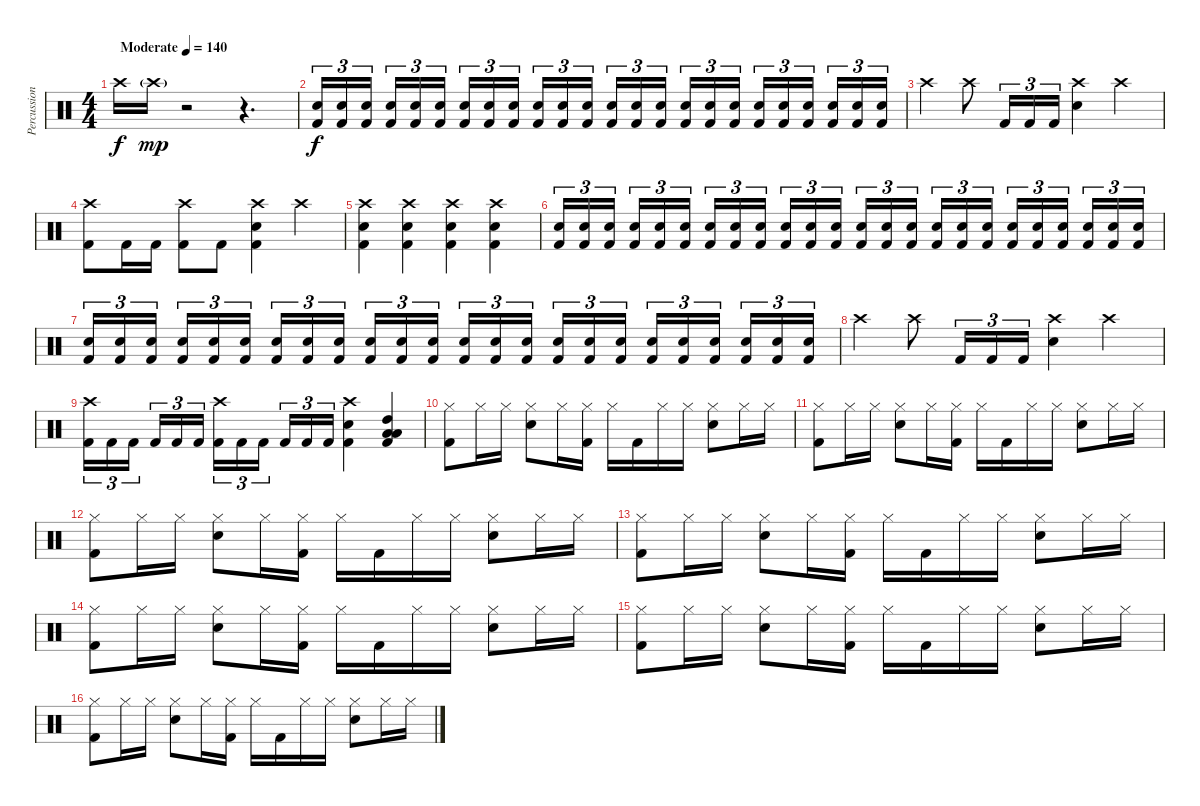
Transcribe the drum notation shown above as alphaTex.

\track ("Percussion" "Percussion") {instrument percussion}
\staff
\articulation defaults
\ts (4 4)
\tempo (140 "Moderate")
\clef neutral
\ks c "Crash high (hit)".16{dy f} "Crash high (hit)"{g}.16{dy mp}
r.2 r.4{d} |
("Electric Snare (hit)" "Kick (hit) 2").16{tu (3 2) dy f} ("Electric Snare (hit)" "Kick (hit) 2").16{tu (3 2)} ("Electric Snare (hit)" "Kick (hit) 2").16{tu (3 2) beam splitsecondary} ("Electric Snare (hit)" "Kick (hit) 2").16{tu (3 2)} ("Electric Snare (hit)" "Kick (hit) 2").16{tu (3 2)} ("Electric Snare (hit)" "Kick (hit) 2").16{tu (3 2)} ("Electric Snare (hit)" "Kick (hit) 2").16{tu (3 2)} ("Electric Snare (hit)" "Kick (hit) 2").16{tu (3 2)} ("Electric Snare (hit)" "Kick (hit) 2").16{tu (3 2) beam splitsecondary} ("Electric Snare (hit)" "Kick (hit) 2").16{tu (3 2)} ("Electric Snare (hit)" "Kick (hit) 2").16{tu (3 2)} ("Electric Snare (hit)" "Kick (hit) 2").16{tu (3 2)} ("Electric Snare (hit)" "Kick (hit) 2").16{tu (3 2)} ("Electric Snare (hit)" "Kick (hit) 2").16{tu (3 2)} ("Electric Snare (hit)" "Kick (hit) 2").16{tu (3 2) beam splitsecondary} ("Electric Snare (hit)" "Kick (hit) 2").16{tu (3 2)} ("Electric Snare (hit)" "Kick (hit) 2").16{tu (3 2)} ("Electric Snare (hit)" "Kick (hit) 2").16{tu (3 2)} ("Electric Snare (hit)" "Kick (hit) 2").16{tu (3 2)} ("Electric Snare (hit)" "Kick (hit) 2").16{tu (3 2)} ("Electric Snare (hit)" "Kick (hit) 2").16{tu (3 2) beam splitsecondary} ("Electric Snare (hit)" "Kick (hit) 2").16{tu (3 2)} ("Electric Snare (hit)" "Kick (hit) 2").16{tu (3 2)} ("Electric Snare (hit)" "Kick (hit) 2").16{tu (3 2)} |
"Crash high (hit)".4 "Crash high (hit)".8 "Kick (hit) 2".16{tu (3 2)} "Kick (hit) 2".16{tu (3 2)} "Kick (hit) 2".16{tu (3 2)} ("Crash high (hit)" "Electric Snare (hit)").4 "Crash high (hit)".4 |
("Crash high (hit)" "Kick (hit) 2").8 "Kick (hit) 2".16 "Kick (hit) 2".16 ("Crash high (hit)" "Kick (hit) 2").8 "Kick (hit) 2".8 ("Crash high (hit)" "Electric Snare (hit)" "Kick (hit) 2").4 "Crash high (hit)".4 |
("Crash high (hit)" "Electric Snare (hit)" "Kick (hit) 2").4 ("Crash high (hit)" "Electric Snare (hit)" "Kick (hit) 2").4 ("Crash high (hit)" "Electric Snare (hit)" "Kick (hit) 2").4 ("Crash high (hit)" "Electric Snare (hit)" "Kick (hit) 2").4 |
("Electric Snare (hit)" "Kick (hit) 2").16{tu (3 2)} ("Electric Snare (hit)" "Kick (hit) 2").16{tu (3 2)} ("Electric Snare (hit)" "Kick (hit) 2").16{tu (3 2) beam splitsecondary} ("Electric Snare (hit)" "Kick (hit) 2").16{tu (3 2)} ("Electric Snare (hit)" "Kick (hit) 2").16{tu (3 2)} ("Electric Snare (hit)" "Kick (hit) 2").16{tu (3 2)} ("Electric Snare (hit)" "Kick (hit) 2").16{tu (3 2)} ("Electric Snare (hit)" "Kick (hit) 2").16{tu (3 2)} ("Electric Snare (hit)" "Kick (hit) 2").16{tu (3 2) beam splitsecondary} ("Electric Snare (hit)" "Kick (hit) 2").16{tu (3 2)} ("Electric Snare (hit)" "Kick (hit) 2").16{tu (3 2)} ("Electric Snare (hit)" "Kick (hit) 2").16{tu (3 2)} ("Electric Snare (hit)" "Kick (hit) 2").16{tu (3 2)} ("Electric Snare (hit)" "Kick (hit) 2").16{tu (3 2)} ("Electric Snare (hit)" "Kick (hit) 2").16{tu (3 2) beam splitsecondary} ("Electric Snare (hit)" "Kick (hit) 2").16{tu (3 2)} ("Electric Snare (hit)" "Kick (hit) 2").16{tu (3 2)} ("Electric Snare (hit)" "Kick (hit) 2").16{tu (3 2)} ("Electric Snare (hit)" "Kick (hit) 2").16{tu (3 2)} ("Electric Snare (hit)" "Kick (hit) 2").16{tu (3 2)} ("Electric Snare (hit)" "Kick (hit) 2").16{tu (3 2) beam splitsecondary} ("Electric Snare (hit)" "Kick (hit) 2").16{tu (3 2)} ("Electric Snare (hit)" "Kick (hit) 2").16{tu (3 2)} ("Electric Snare (hit)" "Kick (hit) 2").16{tu (3 2)} |
("Electric Snare (hit)" "Kick (hit) 2").16{tu (3 2)} ("Electric Snare (hit)" "Kick (hit) 2").16{tu (3 2)} ("Electric Snare (hit)" "Kick (hit) 2").16{tu (3 2) beam splitsecondary} ("Electric Snare (hit)" "Kick (hit) 2").16{tu (3 2)} ("Electric Snare (hit)" "Kick (hit) 2").16{tu (3 2)} ("Electric Snare (hit)" "Kick (hit) 2").16{tu (3 2)} ("Electric Snare (hit)" "Kick (hit) 2").16{tu (3 2)} ("Electric Snare (hit)" "Kick (hit) 2").16{tu (3 2)} ("Electric Snare (hit)" "Kick (hit) 2").16{tu (3 2) beam splitsecondary} ("Electric Snare (hit)" "Kick (hit) 2").16{tu (3 2)} ("Electric Snare (hit)" "Kick (hit) 2").16{tu (3 2)} ("Electric Snare (hit)" "Kick (hit) 2").16{tu (3 2)} ("Electric Snare (hit)" "Kick (hit) 2").16{tu (3 2)} ("Electric Snare (hit)" "Kick (hit) 2").16{tu (3 2)} ("Electric Snare (hit)" "Kick (hit) 2").16{tu (3 2) beam splitsecondary} ("Electric Snare (hit)" "Kick (hit) 2").16{tu (3 2)} ("Electric Snare (hit)" "Kick (hit) 2").16{tu (3 2)} ("Electric Snare (hit)" "Kick (hit) 2").16{tu (3 2)} ("Electric Snare (hit)" "Kick (hit) 2").16{tu (3 2)} ("Electric Snare (hit)" "Kick (hit) 2").16{tu (3 2)} ("Electric Snare (hit)" "Kick (hit) 2").16{tu (3 2) beam splitsecondary} ("Electric Snare (hit)" "Kick (hit) 2").16{tu (3 2)} ("Electric Snare (hit)" "Kick (hit) 2").16{tu (3 2)} ("Electric Snare (hit)" "Kick (hit) 2").16{tu (3 2)} |
"Crash high (hit)".4 "Crash high (hit)".8 "Kick (hit) 2".16{tu (3 2)} "Kick (hit) 2".16{tu (3 2)} "Kick (hit) 2".16{tu (3 2)} ("Crash high (hit)" "Electric Snare (hit)").4 "Crash high (hit)".4 |
("Crash high (hit)" "Kick (hit) 2").16{tu (3 2)} "Kick (hit) 2".16{tu (3 2)} "Kick (hit) 2".16{tu (3 2) beam splitsecondary} "Kick (hit) 2".16{tu (3 2)} "Kick (hit) 2".16{tu (3 2)} "Kick (hit) 2".16{tu (3 2)} ("Crash high (hit)" "Kick (hit) 2").16{tu (3 2)} "Kick (hit) 2".16{tu (3 2)} "Kick (hit) 2".16{tu (3 2) beam splitsecondary} "Kick (hit) 2".16{tu (3 2)} "Kick (hit) 2".16{tu (3 2)} "Kick (hit) 2".16{tu (3 2)} ("Crash high (hit)" "Electric Snare (hit)" "Kick (hit) 2").4 ("Low Floor Tom (hit)" "High Tom (hit)" "Low Tom (hit)" "Kick (hit) 2").4 |
("Hi-Hat (closed)" "Kick (hit) 2").8 "Hi-Hat (closed)".16 "Hi-Hat (closed)".16 ("Hi-Hat (closed)" "Electric Snare (hit)").8 "Hi-Hat (closed)".16 ("Hi-Hat (closed)" "Kick (hit) 2").16 "Hi-Hat (closed)".16 "Kick (hit) 2".16 "Hi-Hat (closed)".16 "Hi-Hat (closed)".16 ("Hi-Hat (closed)" "Electric Snare (hit)").8 "Hi-Hat (closed)".16 "Hi-Hat (closed)".16 |
("Hi-Hat (closed)" "Kick (hit) 2").8 "Hi-Hat (closed)".16 "Hi-Hat (closed)".16 ("Hi-Hat (closed)" "Electric Snare (hit)").8 "Hi-Hat (closed)".16 ("Hi-Hat (closed)" "Kick (hit) 2").16 "Hi-Hat (closed)".16 "Kick (hit) 2".16 "Hi-Hat (closed)".16 "Hi-Hat (closed)".16 ("Hi-Hat (closed)" "Electric Snare (hit)").8 "Hi-Hat (closed)".16 "Hi-Hat (closed)".16 |
("Hi-Hat (closed)" "Kick (hit) 2").8 "Hi-Hat (closed)".16 "Hi-Hat (closed)".16 ("Hi-Hat (closed)" "Electric Snare (hit)").8 "Hi-Hat (closed)".16 ("Hi-Hat (closed)" "Kick (hit) 2").16 "Hi-Hat (closed)".16 "Kick (hit) 2".16 "Hi-Hat (closed)".16 "Hi-Hat (closed)".16 ("Hi-Hat (closed)" "Electric Snare (hit)").8 "Hi-Hat (closed)".16 "Hi-Hat (closed)".16 |
("Hi-Hat (closed)" "Kick (hit) 2").8 "Hi-Hat (closed)".16 "Hi-Hat (closed)".16 ("Hi-Hat (closed)" "Electric Snare (hit)").8 "Hi-Hat (closed)".16 ("Hi-Hat (closed)" "Kick (hit) 2").16 "Hi-Hat (closed)".16 "Kick (hit) 2".16 "Hi-Hat (closed)".16 "Hi-Hat (closed)".16 ("Hi-Hat (closed)" "Electric Snare (hit)").8 "Hi-Hat (closed)".16 "Hi-Hat (closed)".16 |
("Hi-Hat (closed)" "Kick (hit) 2").8 "Hi-Hat (closed)".16 "Hi-Hat (closed)".16 ("Hi-Hat (closed)" "Electric Snare (hit)").8 "Hi-Hat (closed)".16 ("Hi-Hat (closed)" "Kick (hit) 2").16 "Hi-Hat (closed)".16 "Kick (hit) 2".16 "Hi-Hat (closed)".16 "Hi-Hat (closed)".16 ("Hi-Hat (closed)" "Electric Snare (hit)").8 "Hi-Hat (closed)".16 "Hi-Hat (closed)".16 |
("Hi-Hat (closed)" "Kick (hit) 2").8 "Hi-Hat (closed)".16 "Hi-Hat (closed)".16 ("Hi-Hat (closed)" "Electric Snare (hit)").8 "Hi-Hat (closed)".16 ("Hi-Hat (closed)" "Kick (hit) 2").16 "Hi-Hat (closed)".16 "Kick (hit) 2".16 "Hi-Hat (closed)".16 "Hi-Hat (closed)".16 ("Hi-Hat (closed)" "Electric Snare (hit)").8 "Hi-Hat (closed)".16 "Hi-Hat (closed)".16 |
("Hi-Hat (closed)" "Kick (hit) 2").8 "Hi-Hat (closed)".16 "Hi-Hat (closed)".16 ("Hi-Hat (closed)" "Electric Snare (hit)").8 "Hi-Hat (closed)".16 ("Hi-Hat (closed)" "Kick (hit) 2").16 "Hi-Hat (closed)".16 "Kick (hit) 2".16 "Hi-Hat (closed)".16 "Hi-Hat (closed)".16 ("Hi-Hat (closed)" "Electric Snare (hit)").8 "Hi-Hat (closed)".16 "Hi-Hat (closed)".16
